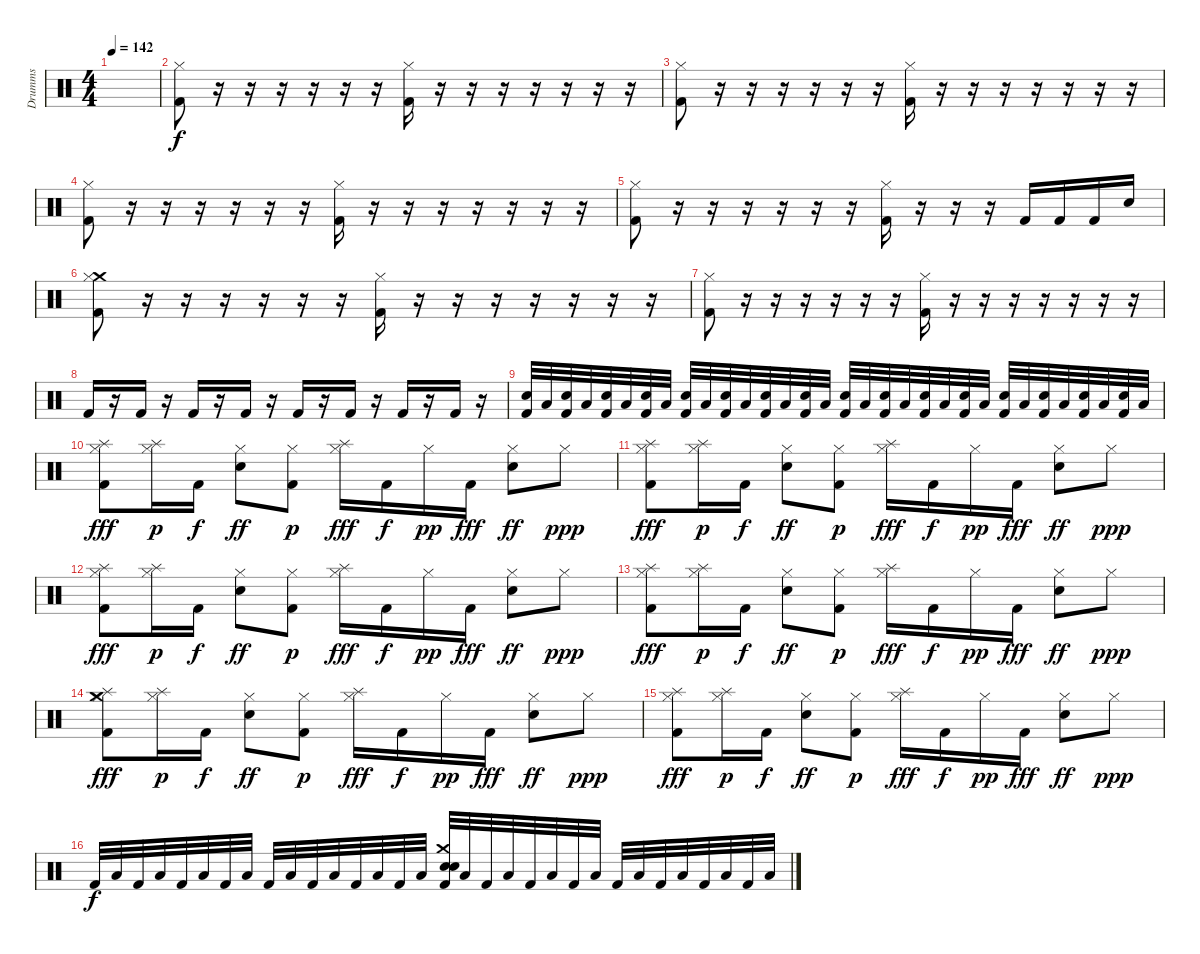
\track ("Drumms" "Drumms") {instrument percussion}
\staff {score}
\articulation defaults
\ts (4 4)
\tempo 142
\clef neutral
\ks c
|
("Hi-Hat (closed)" "Kick (hit) 2").8 r.16 r.16 r.16 r.16 r.16 r.16 ("Hi-Hat (closed)" "Kick (hit) 2").16 r.16 r.16 r.16 r.16 r.16 r.16 r.16 |
("Hi-Hat (closed)" "Kick (hit) 2").8 r.16 r.16 r.16 r.16 r.16 r.16 ("Hi-Hat (closed)" "Kick (hit) 2").16 r.16 r.16 r.16 r.16 r.16 r.16 r.16 |
("Hi-Hat (closed)" "Kick (hit) 2").8 r.16 r.16 r.16 r.16 r.16 r.16 ("Hi-Hat (closed)" "Kick (hit) 2").16 r.16 r.16 r.16 r.16 r.16 r.16 r.16 |
("Hi-Hat (closed)" "Kick (hit) 2").8 r.16 r.16 r.16 r.16 r.16 r.16 ("Hi-Hat (closed)" "Kick (hit) 2").16 r.16 r.16 r.16 "Kick (hit) 2".16 "Kick (hit) 2".16 "Kick (hit) 2".16 "Snare (hit) 2".16 |
("Crash medium (hit)" "Hi-Hat (closed)" "Kick (hit) 2").8 r.16 r.16 r.16 r.16 r.16 r.16 ("Hi-Hat (closed)" "Kick (hit) 2").16 r.16 r.16 r.16 r.16 r.16 r.16 r.16 |
("Hi-Hat (closed)" "Kick (hit) 2").8 r.16 r.16 r.16 r.16 r.16 r.16 ("Hi-Hat (closed)" "Kick (hit) 2").16 r.16 r.16 r.16 r.16 r.16 r.16 r.16 |
"Kick (hit) 2".16 r.16 "Kick (hit) 2".16 r.16 "Kick (hit) 2".16 r.16 "Kick (hit) 2".16 r.16 "Kick (hit) 2".16 r.16 "Kick (hit) 2".16 r.16 "Kick (hit) 2".16 r.16 "Kick (hit) 2".16 r.16 |
("Snare (hit) 2" "Kick (hit) 2").32 "Low Floor Tom (hit)".32 ("Electric Snare (hit)" "Kick (hit) 2").32 "Low Floor Tom (hit)".32 ("Snare (hit) 2" "Kick (hit) 2").32 "Low Floor Tom (hit)".32 ("Electric Snare (hit)" "Kick (hit) 2").32 "Low Floor Tom (hit)".32 ("Snare (hit) 2" "Kick (hit) 2").32 "Low Floor Tom (hit)".32 ("Electric Snare (hit)" "Kick (hit) 2").32 "Low Floor Tom (hit)".32 ("Snare (hit) 2" "Kick (hit) 2").32 "Low Floor Tom (hit)".32 ("Electric Snare (hit)" "Kick (hit) 2").32 "Low Floor Tom (hit)".32 ("Electric Snare (hit)" "Kick (hit) 2").32 "Low Floor Tom (hit)".32 ("Electric Snare (hit)" "Kick (hit) 2").32 "Low Floor Tom (hit)".32 ("Electric Snare (hit)" "Kick (hit) 2").32 "Low Floor Tom (hit)".32 ("Electric Snare (hit)" "Kick (hit) 2").32 "Low Floor Tom (hit)".32 ("Electric Snare (hit)" "Kick (hit) 2").32 "Low Floor Tom (hit)".32 ("Electric Snare (hit)" "Kick (hit) 2").32 "Low Floor Tom (hit)".32 ("Electric Snare (hit)" "Kick (hit) 2").32 "Low Floor Tom (hit)".32 ("Electric Snare (hit)" "Kick (hit) 2").32 "Low Floor Tom (hit)".32 |
("Hi-Hat (closed)" "Kick (hit) 2" "Splash (hit)").8{dy fff} ("Hi-Hat (closed)" "Splash (hit)").16{dy p} "Kick (hit) 2".16{dy f} ("Electric Snare (hit)" "Hi-Hat (closed)").8{dy ff} ("Kick (hit) 2" "Hi-Hat (closed)").8{dy p} ("Hi-Hat (closed)" "Splash (hit)").16{dy fff} "Kick (hit) 2".16{dy f} "Hi-Hat (closed)".16{dy pp} "Kick (hit) 2".16{dy fff} ("Hi-Hat (closed)" "Electric Snare (hit)").8{dy ff} "Hi-Hat (closed)".8{dy ppp} |
("Hi-Hat (closed)" "Kick (hit) 2" "Splash (hit)").8{dy fff} ("Hi-Hat (closed)" "Splash (hit)").16{dy p} "Kick (hit) 2".16{dy f} ("Electric Snare (hit)" "Hi-Hat (closed)").8{dy ff} ("Kick (hit) 2" "Hi-Hat (closed)").8{dy p} ("Hi-Hat (closed)" "Splash (hit)").16{dy fff} "Kick (hit) 2".16{dy f} "Hi-Hat (closed)".16{dy pp} "Kick (hit) 2".16{dy fff} ("Hi-Hat (closed)" "Electric Snare (hit)").8{dy ff} "Hi-Hat (closed)".8{dy ppp} |
("Hi-Hat (closed)" "Kick (hit) 2" "Splash (hit)").8{dy fff} ("Hi-Hat (closed)" "Splash (hit)").16{dy p} "Kick (hit) 2".16{dy f} ("Electric Snare (hit)" "Hi-Hat (closed)").8{dy ff} ("Kick (hit) 2" "Hi-Hat (closed)").8{dy p} ("Hi-Hat (closed)" "Splash (hit)").16{dy fff} "Kick (hit) 2".16{dy f} "Hi-Hat (closed)".16{dy pp} "Kick (hit) 2".16{dy fff} ("Hi-Hat (closed)" "Electric Snare (hit)").8{dy ff} "Hi-Hat (closed)".8{dy ppp} |
("Hi-Hat (closed)" "Kick (hit) 2" "Splash (hit)").8{dy fff} ("Hi-Hat (closed)" "Splash (hit)").16{dy p} "Kick (hit) 2".16{dy f} ("Electric Snare (hit)" "Hi-Hat (closed)").8{dy ff} ("Kick (hit) 2" "Hi-Hat (closed)").8{dy p} ("Hi-Hat (closed)" "Splash (hit)").16{dy fff} "Kick (hit) 2".16{dy f} "Hi-Hat (closed)".16{dy pp} "Kick (hit) 2".16{dy fff} ("Hi-Hat (closed)" "Electric Snare (hit)").8{dy ff} "Hi-Hat (closed)".8{dy ppp} |
("Hi-Hat (closed)" "Kick (hit) 2" "Splash (hit)" "Crash medium (hit)").8{dy fff} ("Hi-Hat (closed)" "Splash (hit)").16{dy p} "Kick (hit) 2".16{dy f} ("Electric Snare (hit)" "Hi-Hat (closed)").8{dy ff} ("Kick (hit) 2" "Hi-Hat (closed)").8{dy p} ("Hi-Hat (closed)" "Splash (hit)").16{dy fff} "Kick (hit) 2".16{dy f} "Hi-Hat (closed)".16{dy pp} "Kick (hit) 2".16{dy fff} ("Hi-Hat (closed)" "Electric Snare (hit)").8{dy ff} "Hi-Hat (closed)".8{dy ppp} |
("Hi-Hat (closed)" "Kick (hit) 2" "Splash (hit)").8{dy fff} ("Hi-Hat (closed)" "Splash (hit)").16{dy p} "Kick (hit) 2".16{dy f} ("Electric Snare (hit)" "Hi-Hat (closed)").8{dy ff} ("Kick (hit) 2" "Hi-Hat (closed)").8{dy p} ("Hi-Hat (closed)" "Splash (hit)").16{dy fff} "Kick (hit) 2".16{dy f} "Hi-Hat (closed)".16{dy pp} "Kick (hit) 2".16{dy fff} ("Hi-Hat (closed)" "Electric Snare (hit)").8{dy ff} "Hi-Hat (closed)".8{dy ppp} |
"Kick (hit) 2".32{dy f} "Low Floor Tom (hit)".32 "Kick (hit) 2".32 "Low Floor Tom (hit)".32 "Kick (hit) 2".32 "Low Floor Tom (hit)".32 "Kick (hit) 2".32 "Low Floor Tom (hit)".32 "Kick (hit) 2".32 "Low Floor Tom (hit)".32 "Kick (hit) 2".32 "Low Floor Tom (hit)".32 "Kick (hit) 2".32 "Low Floor Tom (hit)".32 "Kick (hit) 2".32 "Low Floor Tom (hit)".32 ("Crash medium (hit)" "Snare (hit) 2" "Kick (hit) 2" "Electric Snare (hit)").32 "Low Floor Tom (hit)".32 "Kick (hit) 2".32 "Low Floor Tom (hit)".32 "Kick (hit) 2".32 "Low Floor Tom (hit)".32 "Kick (hit) 2".32 "Low Floor Tom (hit)".32 "Kick (hit) 2".32 "Low Floor Tom (hit)".32 "Kick (hit) 2".32 "Low Floor Tom (hit)".32 "Kick (hit) 2".32 "Low Floor Tom (hit)".32 "Kick (hit) 2".32 "Low Floor Tom (hit)".32
